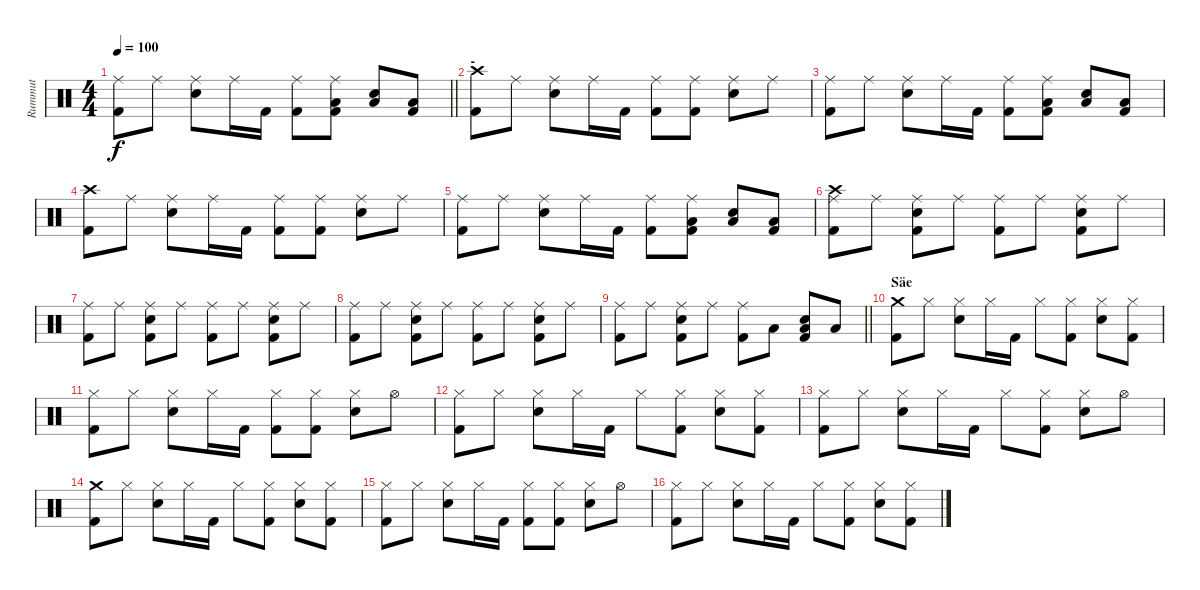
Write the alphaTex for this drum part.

\track ("Rummut" "Rummut") {instrument percussion}
\staff {score}
\articulation defaults
\ts (4 4)
\tempo 100
\clef neutral
\barLineRight lightlight
\ks c
("Ride (middle)" "Kick (hit) 2").8{dy f} "Ride (middle)".8 ("Ride (middle)" "Snare (hit) 2").8 "Ride (middle)".16 "Kick (hit) 2".16 ("Ride (middle)" "Kick (hit) 2").8 ("Ride (middle)" "Low Floor Tom (hit)" "Kick (hit) 2").8 ("Snare (hit) 2" "Low Floor Tom (hit)").8 ("Low Floor Tom (hit)" "Kick (hit) 2").8 |
\section ("" "-")
("Crash high (hit)" "Kick (hit) 2").8 "Ride (middle)".8 ("Ride (middle)" "Snare (hit) 2").8 "Ride (middle)".16 "Kick (hit) 2".16 ("Ride (middle)" "Kick (hit) 2").8 ("Ride (middle)" "Kick (hit) 2").8 ("Ride (middle)" "Snare (hit) 2").8 "Ride (middle)".8 |
("Ride (middle)" "Kick (hit) 2").8 "Ride (middle)".8 ("Ride (middle)" "Snare (hit) 2").8 "Ride (middle)".16 "Kick (hit) 2".16 ("Ride (middle)" "Kick (hit) 2").8 ("Ride (middle)" "Low Floor Tom (hit)" "Kick (hit) 2").8 ("Snare (hit) 2" "Low Floor Tom (hit)").8 ("Low Floor Tom (hit)" "Kick (hit) 2").8 |
("Crash high (hit)" "Kick (hit) 2").8 "Ride (middle)".8 ("Ride (middle)" "Snare (hit) 2").8 "Ride (middle)".16 "Kick (hit) 2".16 ("Ride (middle)" "Kick (hit) 2").8 ("Ride (middle)" "Kick (hit) 2").8 ("Ride (middle)" "Snare (hit) 2").8 "Ride (middle)".8 |
("Ride (middle)" "Kick (hit) 2").8 "Ride (middle)".8 ("Ride (middle)" "Snare (hit) 2").8 "Ride (middle)".16 "Kick (hit) 2".16 ("Ride (middle)" "Kick (hit) 2").8 ("Ride (middle)" "Low Floor Tom (hit)" "Kick (hit) 2").8 ("Snare (hit) 2" "Low Floor Tom (hit)").8 ("Low Floor Tom (hit)" "Kick (hit) 2").8 |
("Crash high (hit)" "Ride (middle)" "Kick (hit) 2").8 "Ride (middle)".8 ("Ride (middle)" "Snare (hit) 2" "Kick (hit) 2").8 "Ride (middle)".8 ("Ride (middle)" "Kick (hit) 2").8 "Ride (middle)".8 ("Ride (middle)" "Snare (hit) 2" "Kick (hit) 2").8 "Ride (middle)".8 |
("Ride (middle)" "Kick (hit) 2").8 "Ride (middle)".8 ("Ride (middle)" "Snare (hit) 2" "Kick (hit) 2").8 "Ride (middle)".8 ("Ride (middle)" "Kick (hit) 2").8 "Ride (middle)".8 ("Ride (middle)" "Snare (hit) 2" "Kick (hit) 2").8 "Ride (middle)".8 |
("Ride (middle)" "Kick (hit) 2").8 "Ride (middle)".8 ("Ride (middle)" "Snare (hit) 2" "Kick (hit) 2").8 "Ride (middle)".8 ("Ride (middle)" "Kick (hit) 2").8 "Ride (middle)".8 ("Ride (middle)" "Snare (hit) 2" "Kick (hit) 2").8 "Ride (middle)".8 |
\barLineRight lightlight
("Ride (middle)" "Kick (hit) 2").8 "Ride (middle)".8 ("Ride (middle)" "Snare (hit) 2" "Kick (hit) 2").8 "Ride (middle)".8 ("Ride (middle)" "Kick (hit) 2").8 "Low Floor Tom (hit)".8 ("Snare (hit) 2" "Low Floor Tom (hit)" "Kick (hit) 2").8 "Low Floor Tom (hit)".8 |
\section ("" "Säe")
("Crash medium (hit)" "Kick (hit) 2").8 "Hi-Hat (closed)".8 ("Hi-Hat (closed)" "Snare (hit) 2").8 "Hi-Hat (closed)".16 "Kick (hit) 2".16 "Hi-Hat (closed)".8 ("Hi-Hat (closed)" "Kick (hit) 2").8 ("Hi-Hat (closed)" "Snare (hit) 2").8 ("Hi-Hat (closed)" "Kick (hit) 2").8 |
("Hi-Hat (closed)" "Kick (hit) 2").8 "Hi-Hat (closed)".8 ("Hi-Hat (closed)" "Snare (hit) 2").8 "Hi-Hat (closed)".16 "Kick (hit) 2".16 ("Hi-Hat (closed)" "Kick (hit) 2").8 ("Hi-Hat (closed)" "Kick (hit) 2").8 ("Hi-Hat (closed)" "Snare (hit) 2").8 "Hi-Hat (open)".8 |
("Hi-Hat (closed)" "Kick (hit) 2").8 "Hi-Hat (closed)".8 ("Hi-Hat (closed)" "Snare (hit) 2").8 "Hi-Hat (closed)".16 "Kick (hit) 2".16 "Hi-Hat (closed)".8 ("Hi-Hat (closed)" "Kick (hit) 2").8 ("Hi-Hat (closed)" "Snare (hit) 2").8 ("Hi-Hat (closed)" "Kick (hit) 2").8 |
("Hi-Hat (closed)" "Kick (hit) 2").8 "Hi-Hat (closed)".8 ("Hi-Hat (closed)" "Snare (hit) 2").8 "Hi-Hat (closed)".16 "Kick (hit) 2".16 "Hi-Hat (closed)".8 ("Hi-Hat (closed)" "Kick (hit) 2").8 ("Hi-Hat (closed)" "Snare (hit) 2").8 "Hi-Hat (open)".8 |
("Crash medium (hit)" "Kick (hit) 2").8 "Hi-Hat (closed)".8 ("Hi-Hat (closed)" "Snare (hit) 2").8 "Hi-Hat (closed)".16 "Kick (hit) 2".16 "Hi-Hat (closed)".8 ("Hi-Hat (closed)" "Kick (hit) 2").8 ("Hi-Hat (closed)" "Snare (hit) 2").8 ("Hi-Hat (closed)" "Kick (hit) 2").8 |
("Hi-Hat (closed)" "Kick (hit) 2").8 "Hi-Hat (closed)".8 ("Hi-Hat (closed)" "Snare (hit) 2").8 "Hi-Hat (closed)".16 "Kick (hit) 2".16 ("Hi-Hat (closed)" "Kick (hit) 2").8 ("Hi-Hat (closed)" "Kick (hit) 2").8 ("Hi-Hat (closed)" "Snare (hit) 2").8 "Hi-Hat (open)".8 |
("Hi-Hat (closed)" "Kick (hit) 2").8 "Hi-Hat (closed)".8 ("Hi-Hat (closed)" "Snare (hit) 2").8 "Hi-Hat (closed)".16 "Kick (hit) 2".16 "Hi-Hat (closed)".8 ("Hi-Hat (closed)" "Kick (hit) 2").8 ("Hi-Hat (closed)" "Snare (hit) 2").8 ("Hi-Hat (closed)" "Kick (hit) 2").8
